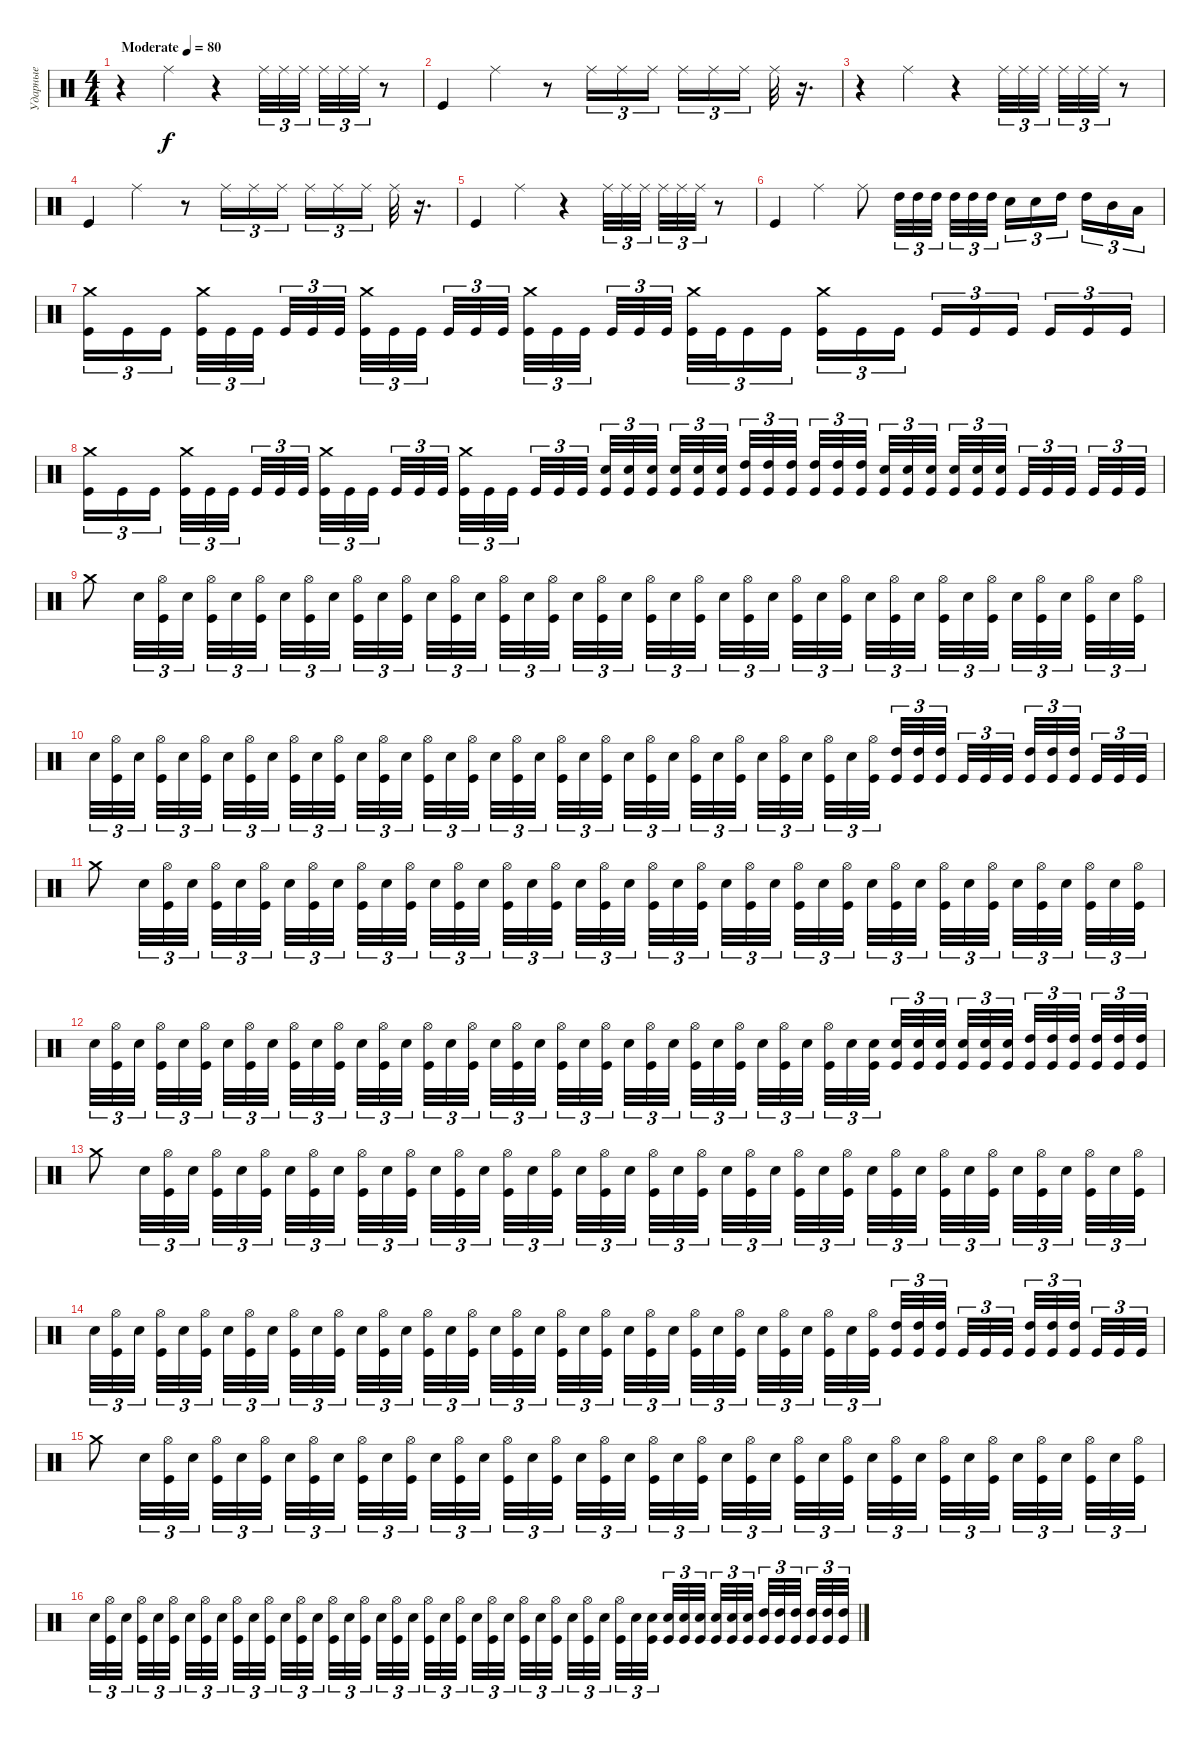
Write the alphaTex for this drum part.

\track ("Ударные" "Ударные") {instrument percussion}
\staff {score}
\articulation defaults
\ts (4 4)
\tempo (80 "Moderate")
\clef neutral
\ks c
r.4{dy f} "Ride (middle)".4 r.4 "Ride (middle)".32{tu (3 2)} "Ride (middle)".32{tu (3 2)} "Ride (middle)".32{tu (3 2) beam splitsecondary} "Ride (middle)".32{tu (3 2)} "Ride (middle)".32{tu (3 2)} "Ride (middle)".32{tu (3 2)} r.8 |
"Kick (hit)".4 "Ride (middle)".4 r.8 "Ride (middle)".16{tu (3 2)} "Ride (middle)".16{tu (3 2)} "Ride (middle)".16{tu (3 2)} "Ride (middle)".16{tu (3 2)} "Ride (middle)".16{tu (3 2)} "Ride (middle)".16{tu (3 2) beam splitsecondary} "Ride (middle)".32 r.16{d} |
r.4 "Ride (middle)".4 r.4 "Ride (middle)".32{tu (3 2)} "Ride (middle)".32{tu (3 2)} "Ride (middle)".32{tu (3 2) beam splitsecondary} "Ride (middle)".32{tu (3 2)} "Ride (middle)".32{tu (3 2)} "Ride (middle)".32{tu (3 2)} r.8 |
"Kick (hit)".4 "Ride (middle)".4 r.8 "Ride (middle)".16{tu (3 2)} "Ride (middle)".16{tu (3 2)} "Ride (middle)".16{tu (3 2)} "Ride (middle)".16{tu (3 2)} "Ride (middle)".16{tu (3 2)} "Ride (middle)".16{tu (3 2) beam splitsecondary} "Ride (middle)".32 r.16{d} |
"Kick (hit)".4 "Ride (middle)".4 r.4 "Ride (middle)".32{tu (3 2)} "Ride (middle)".32{tu (3 2)} "Ride (middle)".32{tu (3 2) beam splitsecondary} "Ride (middle)".32{tu (3 2)} "Ride (middle)".32{tu (3 2)} "Ride (middle)".32{tu (3 2)} r.8 |
"Kick (hit)".4 "Ride (middle)".4 "Ride (middle)".8 "High Tom (hit)".32{tu (3 2)} "High Tom (hit)".32{tu (3 2)} "High Tom (hit)".32{tu (3 2) beam splitsecondary} "High Tom (hit)".32{tu (3 2)} "High Tom (hit)".32{tu (3 2)} "High Tom (hit)".32{tu (3 2)} "Snare (hit) 2".16{tu (3 2)} "Snare (hit) 2".16{tu (3 2)} "High Tom (hit)".16{tu (3 2) beam splitsecondary} "High Tom (hit)".16{tu (3 2)} "Mid Tom (hit)".16{tu (3 2)} "Low Tom (hit)".16{tu (3 2)} |
("Crash medium (hit)" "Kick (hit)").16{tu (3 2)} "Kick (hit)".16{tu (3 2)} "Kick (hit)".16{tu (3 2) beam splitsecondary} ("Crash medium (hit)" "Kick (hit)").32{tu (3 2)} "Kick (hit)".32{tu (3 2)} "Kick (hit)".32{tu (3 2) beam splitsecondary} "Kick (hit)".32{tu (3 2)} "Kick (hit)".32{tu (3 2)} "Kick (hit)".32{tu (3 2)} ("Crash medium (hit)" "Kick (hit)").32{tu (3 2)} "Kick (hit)".32{tu (3 2)} "Kick (hit)".32{tu (3 2) beam splitsecondary} "Kick (hit)".32{tu (3 2)} "Kick (hit)".32{tu (3 2)} "Kick (hit)".32{tu (3 2) beam splitsecondary} ("Crash medium (hit)" "Kick (hit)").32{tu (3 2)} "Kick (hit)".32{tu (3 2)} "Kick (hit)".32{tu (3 2) beam splitsecondary} "Kick (hit)".32{tu (3 2)} "Kick (hit)".32{tu (3 2)} "Kick (hit)".32{tu (3 2)} ("Crash medium (hit)" "Kick (hit)").32{tu (3 2)} "Kick (hit)".32{tu (3 2)} "Kick (hit)".16{tu (3 2)} "Kick (hit)".16{tu (3 2) beam splitsecondary} ("Crash medium (hit)" "Kick (hit)").16{tu (3 2)} "Kick (hit)".16{tu (3 2)} "Kick (hit)".16{tu (3 2)} "Kick (hit)".16{tu (3 2)} "Kick (hit)".16{tu (3 2)} "Kick (hit)".16{tu (3 2) beam splitsecondary} "Kick (hit)".16{tu (3 2)} "Kick (hit)".16{tu (3 2)} "Kick (hit)".16{tu (3 2)} |
("Crash medium (hit)" "Kick (hit)").16{tu (3 2)} "Kick (hit)".16{tu (3 2)} "Kick (hit)".16{tu (3 2) beam splitsecondary} ("Crash medium (hit)" "Kick (hit)").32{tu (3 2)} "Kick (hit)".32{tu (3 2)} "Kick (hit)".32{tu (3 2) beam splitsecondary} "Kick (hit)".32{tu (3 2)} "Kick (hit)".32{tu (3 2)} "Kick (hit)".32{tu (3 2)} ("Crash medium (hit)" "Kick (hit)").32{tu (3 2)} "Kick (hit)".32{tu (3 2)} "Kick (hit)".32{tu (3 2) beam splitsecondary} "Kick (hit)".32{tu (3 2)} "Kick (hit)".32{tu (3 2)} "Kick (hit)".32{tu (3 2) beam splitsecondary} ("Crash medium (hit)" "Kick (hit)").32{tu (3 2)} "Kick (hit)".32{tu (3 2)} "Kick (hit)".32{tu (3 2) beam splitsecondary} "Kick (hit)".32{tu (3 2)} "Kick (hit)".32{tu (3 2)} "Kick (hit)".32{tu (3 2)} ("Snare (hit) 2" "Kick (hit)").32{tu (3 2)} ("Snare (hit) 2" "Kick (hit)").32{tu (3 2)} ("Snare (hit) 2" "Kick (hit)").32{tu (3 2) beam splitsecondary} ("Snare (hit) 2" "Kick (hit)").32{tu (3 2)} ("Snare (hit) 2" "Kick (hit)").32{tu (3 2)} ("Snare (hit) 2" "Kick (hit)").32{tu (3 2) beam splitsecondary} ("High Tom (hit)" "Kick (hit)").32{tu (3 2)} ("High Tom (hit)" "Kick (hit)").32{tu (3 2)} ("High Tom (hit)" "Kick (hit)").32{tu (3 2) beam splitsecondary} ("High Tom (hit)" "Kick (hit)").32{tu (3 2)} ("High Tom (hit)" "Kick (hit)").32{tu (3 2)} ("High Tom (hit)" "Kick (hit)").32{tu (3 2)} ("Snare (hit) 2" "Kick (hit)").32{tu (3 2)} ("Snare (hit) 2" "Kick (hit)").32{tu (3 2)} ("Snare (hit) 2" "Kick (hit)").32{tu (3 2) beam splitsecondary} ("Snare (hit) 2" "Kick (hit)").32{tu (3 2)} ("Snare (hit) 2" "Kick (hit)").32{tu (3 2)} ("Snare (hit) 2" "Kick (hit)").32{tu (3 2) beam splitsecondary} "Kick (hit)".32{tu (3 2)} "Kick (hit)".32{tu (3 2)} "Kick (hit)".32{tu (3 2) beam splitsecondary} "Kick (hit)".32{tu (3 2)} "Kick (hit)".32{tu (3 2)} "Kick (hit)".32{tu (3 2)} |
"Crash medium (hit)".8 "Snare (hit) 2".32{tu (3 2)} ("Hi-Hat (open)" "Kick (hit)").32{tu (3 2)} "Snare (hit) 2".32{tu (3 2) beam splitsecondary} ("Hi-Hat (open)" "Kick (hit)").32{tu (3 2)} "Snare (hit) 2".32{tu (3 2)} ("Hi-Hat (open)" "Kick (hit)").32{tu (3 2)} "Snare (hit) 2".32{tu (3 2)} ("Hi-Hat (open)" "Kick (hit)").32{tu (3 2)} "Snare (hit) 2".32{tu (3 2) beam splitsecondary} ("Hi-Hat (open)" "Kick (hit)").32{tu (3 2)} "Snare (hit) 2".32{tu (3 2)} ("Hi-Hat (open)" "Kick (hit)").32{tu (3 2) beam splitsecondary} "Snare (hit) 2".32{tu (3 2)} ("Hi-Hat (open)" "Kick (hit)").32{tu (3 2)} "Snare (hit) 2".32{tu (3 2) beam splitsecondary} ("Hi-Hat (open)" "Kick (hit)").32{tu (3 2)} "Snare (hit) 2".32{tu (3 2)} ("Hi-Hat (open)" "Kick (hit)").32{tu (3 2)} "Snare (hit) 2".32{tu (3 2)} ("Hi-Hat (open)" "Kick (hit)").32{tu (3 2)} "Snare (hit) 2".32{tu (3 2) beam splitsecondary} ("Hi-Hat (open)" "Kick (hit)").32{tu (3 2)} "Snare (hit) 2".32{tu (3 2)} ("Hi-Hat (open)" "Kick (hit)").32{tu (3 2) beam splitsecondary} "Snare (hit) 2".32{tu (3 2)} ("Hi-Hat (open)" "Kick (hit)").32{tu (3 2)} "Snare (hit) 2".32{tu (3 2) beam splitsecondary} ("Hi-Hat (open)" "Kick (hit)").32{tu (3 2)} "Snare (hit) 2".32{tu (3 2)} ("Hi-Hat (open)" "Kick (hit)").32{tu (3 2)} "Snare (hit) 2".32{tu (3 2)} ("Hi-Hat (open)" "Kick (hit)").32{tu (3 2)} "Snare (hit) 2".32{tu (3 2) beam splitsecondary} ("Hi-Hat (open)" "Kick (hit)").32{tu (3 2)} "Snare (hit) 2".32{tu (3 2)} ("Hi-Hat (open)" "Kick (hit)").32{tu (3 2) beam splitsecondary} "Snare (hit) 2".32{tu (3 2)} ("Hi-Hat (open)" "Kick (hit)").32{tu (3 2)} "Snare (hit) 2".32{tu (3 2) beam splitsecondary} ("Hi-Hat (open)" "Kick (hit)").32{tu (3 2)} "Snare (hit) 2".32{tu (3 2)} ("Hi-Hat (open)" "Kick (hit)").32{tu (3 2)} |
"Snare (hit) 2".32{tu (3 2)} ("Hi-Hat (open)" "Kick (hit)").32{tu (3 2)} "Snare (hit) 2".32{tu (3 2) beam splitsecondary} ("Hi-Hat (open)" "Kick (hit)").32{tu (3 2)} "Snare (hit) 2".32{tu (3 2)} ("Hi-Hat (open)" "Kick (hit)").32{tu (3 2) beam splitsecondary} "Snare (hit) 2".32{tu (3 2)} ("Hi-Hat (open)" "Kick (hit)").32{tu (3 2)} "Snare (hit) 2".32{tu (3 2) beam splitsecondary} ("Hi-Hat (open)" "Kick (hit)").32{tu (3 2)} "Snare (hit) 2".32{tu (3 2)} ("Hi-Hat (open)" "Kick (hit)").32{tu (3 2)} "Snare (hit) 2".32{tu (3 2)} ("Hi-Hat (open)" "Kick (hit)").32{tu (3 2)} "Snare (hit) 2".32{tu (3 2) beam splitsecondary} ("Hi-Hat (open)" "Kick (hit)").32{tu (3 2)} "Snare (hit) 2".32{tu (3 2)} ("Hi-Hat (open)" "Kick (hit)").32{tu (3 2) beam splitsecondary} "Snare (hit) 2".32{tu (3 2)} ("Hi-Hat (open)" "Kick (hit)").32{tu (3 2)} "Snare (hit) 2".32{tu (3 2) beam splitsecondary} ("Hi-Hat (open)" "Kick (hit)").32{tu (3 2)} "Snare (hit) 2".32{tu (3 2)} ("Hi-Hat (open)" "Kick (hit)").32{tu (3 2)} "Snare (hit) 2".32{tu (3 2)} ("Hi-Hat (open)" "Kick (hit)").32{tu (3 2)} "Snare (hit) 2".32{tu (3 2) beam splitsecondary} ("Hi-Hat (open)" "Kick (hit)").32{tu (3 2)} "Snare (hit) 2".32{tu (3 2)} ("Hi-Hat (open)" "Kick (hit)").32{tu (3 2) beam splitsecondary} "Snare (hit) 2".32{tu (3 2)} ("Hi-Hat (open)" "Kick (hit)").32{tu (3 2)} "Snare (hit) 2".32{tu (3 2) beam splitsecondary} ("Hi-Hat (open)" "Kick (hit)").32{tu (3 2)} "Snare (hit) 2".32{tu (3 2)} ("Hi-Hat (open)" "Kick (hit)").32{tu (3 2)} ("High Tom (hit)" "Kick (hit)").32{tu (3 2)} ("High Tom (hit)" "Kick (hit)").32{tu (3 2)} ("High Tom (hit)" "Kick (hit)").32{tu (3 2) beam splitsecondary} "Kick (hit)".32{tu (3 2)} "Kick (hit)".32{tu (3 2)} "Kick (hit)".32{tu (3 2) beam splitsecondary} ("High Tom (hit)" "Kick (hit)").32{tu (3 2)} ("High Tom (hit)" "Kick (hit)").32{tu (3 2)} ("High Tom (hit)" "Kick (hit)").32{tu (3 2) beam splitsecondary} "Kick (hit)".32{tu (3 2)} "Kick (hit)".32{tu (3 2)} "Kick (hit)".32{tu (3 2)} |
"Crash medium (hit)".8 "Snare (hit) 2".32{tu (3 2)} ("Hi-Hat (open)" "Kick (hit)").32{tu (3 2)} "Snare (hit) 2".32{tu (3 2) beam splitsecondary} ("Hi-Hat (open)" "Kick (hit)").32{tu (3 2)} "Snare (hit) 2".32{tu (3 2)} ("Hi-Hat (open)" "Kick (hit)").32{tu (3 2)} "Snare (hit) 2".32{tu (3 2)} ("Hi-Hat (open)" "Kick (hit)").32{tu (3 2)} "Snare (hit) 2".32{tu (3 2) beam splitsecondary} ("Hi-Hat (open)" "Kick (hit)").32{tu (3 2)} "Snare (hit) 2".32{tu (3 2)} ("Hi-Hat (open)" "Kick (hit)").32{tu (3 2) beam splitsecondary} "Snare (hit) 2".32{tu (3 2)} ("Hi-Hat (open)" "Kick (hit)").32{tu (3 2)} "Snare (hit) 2".32{tu (3 2) beam splitsecondary} ("Hi-Hat (open)" "Kick (hit)").32{tu (3 2)} "Snare (hit) 2".32{tu (3 2)} ("Hi-Hat (open)" "Kick (hit)").32{tu (3 2)} "Snare (hit) 2".32{tu (3 2)} ("Hi-Hat (open)" "Kick (hit)").32{tu (3 2)} "Snare (hit) 2".32{tu (3 2) beam splitsecondary} ("Hi-Hat (open)" "Kick (hit)").32{tu (3 2)} "Snare (hit) 2".32{tu (3 2)} ("Hi-Hat (open)" "Kick (hit)").32{tu (3 2) beam splitsecondary} "Snare (hit) 2".32{tu (3 2)} ("Hi-Hat (open)" "Kick (hit)").32{tu (3 2)} "Snare (hit) 2".32{tu (3 2) beam splitsecondary} ("Hi-Hat (open)" "Kick (hit)").32{tu (3 2)} "Snare (hit) 2".32{tu (3 2)} ("Hi-Hat (open)" "Kick (hit)").32{tu (3 2)} "Snare (hit) 2".32{tu (3 2)} ("Hi-Hat (open)" "Kick (hit)").32{tu (3 2)} "Snare (hit) 2".32{tu (3 2) beam splitsecondary} ("Hi-Hat (open)" "Kick (hit)").32{tu (3 2)} "Snare (hit) 2".32{tu (3 2)} ("Hi-Hat (open)" "Kick (hit)").32{tu (3 2) beam splitsecondary} "Snare (hit) 2".32{tu (3 2)} ("Hi-Hat (open)" "Kick (hit)").32{tu (3 2)} "Snare (hit) 2".32{tu (3 2) beam splitsecondary} ("Hi-Hat (open)" "Kick (hit)").32{tu (3 2)} "Snare (hit) 2".32{tu (3 2)} ("Hi-Hat (open)" "Kick (hit)").32{tu (3 2)} |
"Snare (hit) 2".32{tu (3 2)} ("Hi-Hat (open)" "Kick (hit)").32{tu (3 2)} "Snare (hit) 2".32{tu (3 2) beam splitsecondary} ("Hi-Hat (open)" "Kick (hit)").32{tu (3 2)} "Snare (hit) 2".32{tu (3 2)} ("Hi-Hat (open)" "Kick (hit)").32{tu (3 2) beam splitsecondary} "Snare (hit) 2".32{tu (3 2)} ("Hi-Hat (open)" "Kick (hit)").32{tu (3 2)} "Snare (hit) 2".32{tu (3 2) beam splitsecondary} ("Hi-Hat (open)" "Kick (hit)").32{tu (3 2)} "Snare (hit) 2".32{tu (3 2)} ("Hi-Hat (open)" "Kick (hit)").32{tu (3 2)} "Snare (hit) 2".32{tu (3 2)} ("Hi-Hat (open)" "Kick (hit)").32{tu (3 2)} "Snare (hit) 2".32{tu (3 2) beam splitsecondary} ("Hi-Hat (open)" "Kick (hit)").32{tu (3 2)} "Snare (hit) 2".32{tu (3 2)} ("Hi-Hat (open)" "Kick (hit)").32{tu (3 2) beam splitsecondary} "Snare (hit) 2".32{tu (3 2)} ("Hi-Hat (open)" "Kick (hit)").32{tu (3 2)} "Snare (hit) 2".32{tu (3 2) beam splitsecondary} ("Hi-Hat (open)" "Kick (hit)").32{tu (3 2)} "Snare (hit) 2".32{tu (3 2)} ("Hi-Hat (open)" "Kick (hit)").32{tu (3 2)} "Snare (hit) 2".32{tu (3 2)} ("Hi-Hat (open)" "Kick (hit)").32{tu (3 2)} "Snare (hit) 2".32{tu (3 2) beam splitsecondary} ("Hi-Hat (open)" "Kick (hit)").32{tu (3 2)} "Snare (hit) 2".32{tu (3 2)} ("Hi-Hat (open)" "Kick (hit)").32{tu (3 2) beam splitsecondary} "Snare (hit) 2".32{tu (3 2)} ("Hi-Hat (open)" "Kick (hit)").32{tu (3 2)} "Snare (hit) 2".32{tu (3 2) beam splitsecondary} ("Hi-Hat (open)" "Kick (hit)").32{tu (3 2)} "Snare (hit) 2".32{tu (3 2)} ("Snare (hit) 2" "Kick (hit)").32{tu (3 2)} ("Snare (hit) 2" "Kick (hit)").32{tu (3 2)} ("Snare (hit) 2" "Kick (hit)").32{tu (3 2)} ("Snare (hit) 2" "Kick (hit)").32{tu (3 2) beam splitsecondary} ("Snare (hit) 2" "Kick (hit)").32{tu (3 2)} ("Snare (hit) 2" "Kick (hit)").32{tu (3 2)} ("Snare (hit) 2" "Kick (hit)").32{tu (3 2) beam splitsecondary} ("High Tom (hit)" "Kick (hit)").32{tu (3 2)} ("High Tom (hit)" "Kick (hit)").32{tu (3 2)} ("High Tom (hit)" "Kick (hit)").32{tu (3 2) beam splitsecondary} ("High Tom (hit)" "Kick (hit)").32{tu (3 2)} ("High Tom (hit)" "Kick (hit)").32{tu (3 2)} ("High Tom (hit)" "Kick (hit)").32{tu (3 2)} |
"Crash medium (hit)".8 "Snare (hit) 2".32{tu (3 2)} ("Hi-Hat (open)" "Kick (hit)").32{tu (3 2)} "Snare (hit) 2".32{tu (3 2) beam splitsecondary} ("Hi-Hat (open)" "Kick (hit)").32{tu (3 2)} "Snare (hit) 2".32{tu (3 2)} ("Hi-Hat (open)" "Kick (hit)").32{tu (3 2)} "Snare (hit) 2".32{tu (3 2)} ("Hi-Hat (open)" "Kick (hit)").32{tu (3 2)} "Snare (hit) 2".32{tu (3 2) beam splitsecondary} ("Hi-Hat (open)" "Kick (hit)").32{tu (3 2)} "Snare (hit) 2".32{tu (3 2)} ("Hi-Hat (open)" "Kick (hit)").32{tu (3 2) beam splitsecondary} "Snare (hit) 2".32{tu (3 2)} ("Hi-Hat (open)" "Kick (hit)").32{tu (3 2)} "Snare (hit) 2".32{tu (3 2) beam splitsecondary} ("Hi-Hat (open)" "Kick (hit)").32{tu (3 2)} "Snare (hit) 2".32{tu (3 2)} ("Hi-Hat (open)" "Kick (hit)").32{tu (3 2)} "Snare (hit) 2".32{tu (3 2)} ("Hi-Hat (open)" "Kick (hit)").32{tu (3 2)} "Snare (hit) 2".32{tu (3 2) beam splitsecondary} ("Hi-Hat (open)" "Kick (hit)").32{tu (3 2)} "Snare (hit) 2".32{tu (3 2)} ("Hi-Hat (open)" "Kick (hit)").32{tu (3 2) beam splitsecondary} "Snare (hit) 2".32{tu (3 2)} ("Hi-Hat (open)" "Kick (hit)").32{tu (3 2)} "Snare (hit) 2".32{tu (3 2) beam splitsecondary} ("Hi-Hat (open)" "Kick (hit)").32{tu (3 2)} "Snare (hit) 2".32{tu (3 2)} ("Hi-Hat (open)" "Kick (hit)").32{tu (3 2)} "Snare (hit) 2".32{tu (3 2)} ("Hi-Hat (open)" "Kick (hit)").32{tu (3 2)} "Snare (hit) 2".32{tu (3 2) beam splitsecondary} ("Hi-Hat (open)" "Kick (hit)").32{tu (3 2)} "Snare (hit) 2".32{tu (3 2)} ("Hi-Hat (open)" "Kick (hit)").32{tu (3 2) beam splitsecondary} "Snare (hit) 2".32{tu (3 2)} ("Hi-Hat (open)" "Kick (hit)").32{tu (3 2)} "Snare (hit) 2".32{tu (3 2) beam splitsecondary} ("Hi-Hat (open)" "Kick (hit)").32{tu (3 2)} "Snare (hit) 2".32{tu (3 2)} ("Hi-Hat (open)" "Kick (hit)").32{tu (3 2)} |
"Snare (hit) 2".32{tu (3 2)} ("Hi-Hat (open)" "Kick (hit)").32{tu (3 2)} "Snare (hit) 2".32{tu (3 2) beam splitsecondary} ("Hi-Hat (open)" "Kick (hit)").32{tu (3 2)} "Snare (hit) 2".32{tu (3 2)} ("Hi-Hat (open)" "Kick (hit)").32{tu (3 2) beam splitsecondary} "Snare (hit) 2".32{tu (3 2)} ("Hi-Hat (open)" "Kick (hit)").32{tu (3 2)} "Snare (hit) 2".32{tu (3 2) beam splitsecondary} ("Hi-Hat (open)" "Kick (hit)").32{tu (3 2)} "Snare (hit) 2".32{tu (3 2)} ("Hi-Hat (open)" "Kick (hit)").32{tu (3 2)} "Snare (hit) 2".32{tu (3 2)} ("Hi-Hat (open)" "Kick (hit)").32{tu (3 2)} "Snare (hit) 2".32{tu (3 2) beam splitsecondary} ("Hi-Hat (open)" "Kick (hit)").32{tu (3 2)} "Snare (hit) 2".32{tu (3 2)} ("Hi-Hat (open)" "Kick (hit)").32{tu (3 2) beam splitsecondary} "Snare (hit) 2".32{tu (3 2)} ("Hi-Hat (open)" "Kick (hit)").32{tu (3 2)} "Snare (hit) 2".32{tu (3 2) beam splitsecondary} ("Hi-Hat (open)" "Kick (hit)").32{tu (3 2)} "Snare (hit) 2".32{tu (3 2)} ("Hi-Hat (open)" "Kick (hit)").32{tu (3 2)} "Snare (hit) 2".32{tu (3 2)} ("Hi-Hat (open)" "Kick (hit)").32{tu (3 2)} "Snare (hit) 2".32{tu (3 2) beam splitsecondary} ("Hi-Hat (open)" "Kick (hit)").32{tu (3 2)} "Snare (hit) 2".32{tu (3 2)} ("Hi-Hat (open)" "Kick (hit)").32{tu (3 2) beam splitsecondary} "Snare (hit) 2".32{tu (3 2)} ("Hi-Hat (open)" "Kick (hit)").32{tu (3 2)} "Snare (hit) 2".32{tu (3 2) beam splitsecondary} ("Hi-Hat (open)" "Kick (hit)").32{tu (3 2)} "Snare (hit) 2".32{tu (3 2)} ("Hi-Hat (open)" "Kick (hit)").32{tu (3 2)} ("High Tom (hit)" "Kick (hit)").32{tu (3 2)} ("High Tom (hit)" "Kick (hit)").32{tu (3 2)} ("High Tom (hit)" "Kick (hit)").32{tu (3 2) beam splitsecondary} "Kick (hit)".32{tu (3 2)} "Kick (hit)".32{tu (3 2)} "Kick (hit)".32{tu (3 2) beam splitsecondary} ("High Tom (hit)" "Kick (hit)").32{tu (3 2)} ("High Tom (hit)" "Kick (hit)").32{tu (3 2)} ("High Tom (hit)" "Kick (hit)").32{tu (3 2) beam splitsecondary} "Kick (hit)".32{tu (3 2)} "Kick (hit)".32{tu (3 2)} "Kick (hit)".32{tu (3 2)} |
"Crash medium (hit)".8 "Snare (hit) 2".32{tu (3 2)} ("Hi-Hat (open)" "Kick (hit)").32{tu (3 2)} "Snare (hit) 2".32{tu (3 2) beam splitsecondary} ("Hi-Hat (open)" "Kick (hit)").32{tu (3 2)} "Snare (hit) 2".32{tu (3 2)} ("Hi-Hat (open)" "Kick (hit)").32{tu (3 2)} "Snare (hit) 2".32{tu (3 2)} ("Hi-Hat (open)" "Kick (hit)").32{tu (3 2)} "Snare (hit) 2".32{tu (3 2) beam splitsecondary} ("Hi-Hat (open)" "Kick (hit)").32{tu (3 2)} "Snare (hit) 2".32{tu (3 2)} ("Hi-Hat (open)" "Kick (hit)").32{tu (3 2) beam splitsecondary} "Snare (hit) 2".32{tu (3 2)} ("Hi-Hat (open)" "Kick (hit)").32{tu (3 2)} "Snare (hit) 2".32{tu (3 2) beam splitsecondary} ("Hi-Hat (open)" "Kick (hit)").32{tu (3 2)} "Snare (hit) 2".32{tu (3 2)} ("Hi-Hat (open)" "Kick (hit)").32{tu (3 2)} "Snare (hit) 2".32{tu (3 2)} ("Hi-Hat (open)" "Kick (hit)").32{tu (3 2)} "Snare (hit) 2".32{tu (3 2) beam splitsecondary} ("Hi-Hat (open)" "Kick (hit)").32{tu (3 2)} "Snare (hit) 2".32{tu (3 2)} ("Hi-Hat (open)" "Kick (hit)").32{tu (3 2) beam splitsecondary} "Snare (hit) 2".32{tu (3 2)} ("Hi-Hat (open)" "Kick (hit)").32{tu (3 2)} "Snare (hit) 2".32{tu (3 2) beam splitsecondary} ("Hi-Hat (open)" "Kick (hit)").32{tu (3 2)} "Snare (hit) 2".32{tu (3 2)} ("Hi-Hat (open)" "Kick (hit)").32{tu (3 2)} "Snare (hit) 2".32{tu (3 2)} ("Hi-Hat (open)" "Kick (hit)").32{tu (3 2)} "Snare (hit) 2".32{tu (3 2) beam splitsecondary} ("Hi-Hat (open)" "Kick (hit)").32{tu (3 2)} "Snare (hit) 2".32{tu (3 2)} ("Hi-Hat (open)" "Kick (hit)").32{tu (3 2) beam splitsecondary} "Snare (hit) 2".32{tu (3 2)} ("Hi-Hat (open)" "Kick (hit)").32{tu (3 2)} "Snare (hit) 2".32{tu (3 2) beam splitsecondary} ("Hi-Hat (open)" "Kick (hit)").32{tu (3 2)} "Snare (hit) 2".32{tu (3 2)} ("Hi-Hat (open)" "Kick (hit)").32{tu (3 2)} |
"Snare (hit) 2".32{tu (3 2)} ("Hi-Hat (open)" "Kick (hit)").32{tu (3 2)} "Snare (hit) 2".32{tu (3 2) beam splitsecondary} ("Hi-Hat (open)" "Kick (hit)").32{tu (3 2)} "Snare (hit) 2".32{tu (3 2)} ("Hi-Hat (open)" "Kick (hit)").32{tu (3 2) beam splitsecondary} "Snare (hit) 2".32{tu (3 2)} ("Hi-Hat (open)" "Kick (hit)").32{tu (3 2)} "Snare (hit) 2".32{tu (3 2) beam splitsecondary} ("Hi-Hat (open)" "Kick (hit)").32{tu (3 2)} "Snare (hit) 2".32{tu (3 2)} ("Hi-Hat (open)" "Kick (hit)").32{tu (3 2)} "Snare (hit) 2".32{tu (3 2)} ("Hi-Hat (open)" "Kick (hit)").32{tu (3 2)} "Snare (hit) 2".32{tu (3 2) beam splitsecondary} ("Hi-Hat (open)" "Kick (hit)").32{tu (3 2)} "Snare (hit) 2".32{tu (3 2)} ("Hi-Hat (open)" "Kick (hit)").32{tu (3 2) beam splitsecondary} "Snare (hit) 2".32{tu (3 2)} ("Hi-Hat (open)" "Kick (hit)").32{tu (3 2)} "Snare (hit) 2".32{tu (3 2) beam splitsecondary} ("Hi-Hat (open)" "Kick (hit)").32{tu (3 2)} "Snare (hit) 2".32{tu (3 2)} ("Hi-Hat (open)" "Kick (hit)").32{tu (3 2)} "Snare (hit) 2".32{tu (3 2)} ("Hi-Hat (open)" "Kick (hit)").32{tu (3 2)} "Snare (hit) 2".32{tu (3 2) beam splitsecondary} ("Hi-Hat (open)" "Kick (hit)").32{tu (3 2)} "Snare (hit) 2".32{tu (3 2)} ("Hi-Hat (open)" "Kick (hit)").32{tu (3 2) beam splitsecondary} "Snare (hit) 2".32{tu (3 2)} ("Hi-Hat (open)" "Kick (hit)").32{tu (3 2)} "Snare (hit) 2".32{tu (3 2) beam splitsecondary} ("Hi-Hat (open)" "Kick (hit)").32{tu (3 2)} "Snare (hit) 2".32{tu (3 2)} ("Snare (hit) 2" "Kick (hit)").32{tu (3 2)} ("Snare (hit) 2" "Kick (hit)").32{tu (3 2)} ("Snare (hit) 2" "Kick (hit)").32{tu (3 2)} ("Snare (hit) 2" "Kick (hit)").32{tu (3 2) beam splitsecondary} ("Snare (hit) 2" "Kick (hit)").32{tu (3 2)} ("Snare (hit) 2" "Kick (hit)").32{tu (3 2)} ("Snare (hit) 2" "Kick (hit)").32{tu (3 2) beam splitsecondary} ("High Tom (hit)" "Kick (hit)").32{tu (3 2)} ("High Tom (hit)" "Kick (hit)").32{tu (3 2)} ("High Tom (hit)" "Kick (hit)").32{tu (3 2) beam splitsecondary} ("High Tom (hit)" "Kick (hit)").32{tu (3 2)} ("High Tom (hit)" "Kick (hit)").32{tu (3 2)} ("High Tom (hit)" "Kick (hit)").32{tu (3 2)}
